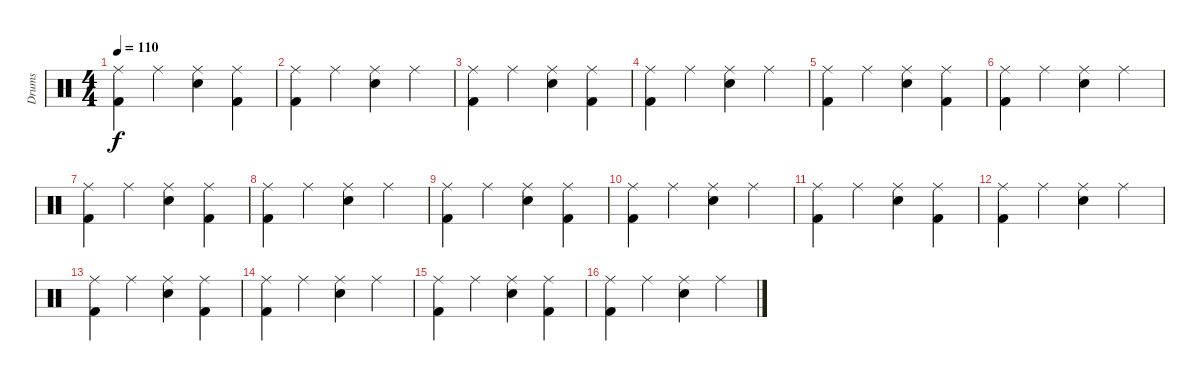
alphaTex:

\track ("Drums" "Drums") {instrument percussion}
\staff {score}
\articulation defaults
\ts (4 4)
\tempo 110
\clef neutral
\ks c
("Ride (middle)" "Kick (hit) 2").4{dy f} "Ride (middle)".4 ("Ride (middle)" "Electric Snare (hit)").4 ("Ride (middle)" "Kick (hit) 2").4 |
("Ride (middle)" "Kick (hit) 2").4 "Ride (middle)".4 ("Ride (middle)" "Electric Snare (hit)").4 "Ride (middle)".4 |
("Ride (middle)" "Kick (hit) 2").4 "Ride (middle)".4 ("Ride (middle)" "Electric Snare (hit)").4 ("Ride (middle)" "Kick (hit) 2").4 |
("Ride (middle)" "Kick (hit) 2").4 "Ride (middle)".4 ("Ride (middle)" "Electric Snare (hit)").4 "Ride (middle)".4 |
("Ride (middle)" "Kick (hit) 2").4 "Ride (middle)".4 ("Ride (middle)" "Electric Snare (hit)").4 ("Ride (middle)" "Kick (hit) 2").4 |
("Ride (middle)" "Kick (hit) 2").4 "Ride (middle)".4 ("Ride (middle)" "Electric Snare (hit)").4 "Ride (middle)".4 |
("Ride (middle)" "Kick (hit) 2").4 "Ride (middle)".4 ("Ride (middle)" "Electric Snare (hit)").4 ("Ride (middle)" "Kick (hit) 2").4 |
("Ride (middle)" "Kick (hit) 2").4 "Ride (middle)".4 ("Ride (middle)" "Electric Snare (hit)").4 "Ride (middle)".4 |
("Ride (middle)" "Kick (hit) 2").4 "Ride (middle)".4 ("Ride (middle)" "Electric Snare (hit)").4 ("Ride (middle)" "Kick (hit) 2").4 |
("Ride (middle)" "Kick (hit) 2").4 "Ride (middle)".4 ("Ride (middle)" "Electric Snare (hit)").4 "Ride (middle)".4 |
("Ride (middle)" "Kick (hit) 2").4 "Ride (middle)".4 ("Ride (middle)" "Electric Snare (hit)").4 ("Ride (middle)" "Kick (hit) 2").4 |
("Ride (middle)" "Kick (hit) 2").4 "Ride (middle)".4 ("Ride (middle)" "Electric Snare (hit)").4 "Ride (middle)".4 |
("Ride (middle)" "Kick (hit) 2").4 "Ride (middle)".4 ("Ride (middle)" "Electric Snare (hit)").4 ("Ride (middle)" "Kick (hit) 2").4 |
("Ride (middle)" "Kick (hit) 2").4 "Ride (middle)".4 ("Ride (middle)" "Electric Snare (hit)").4 "Ride (middle)".4 |
("Ride (middle)" "Kick (hit) 2").4 "Ride (middle)".4 ("Ride (middle)" "Electric Snare (hit)").4 ("Ride (middle)" "Kick (hit) 2").4 |
("Ride (middle)" "Kick (hit) 2").4 "Ride (middle)".4 ("Ride (middle)" "Electric Snare (hit)").4 "Ride (middle)".4
